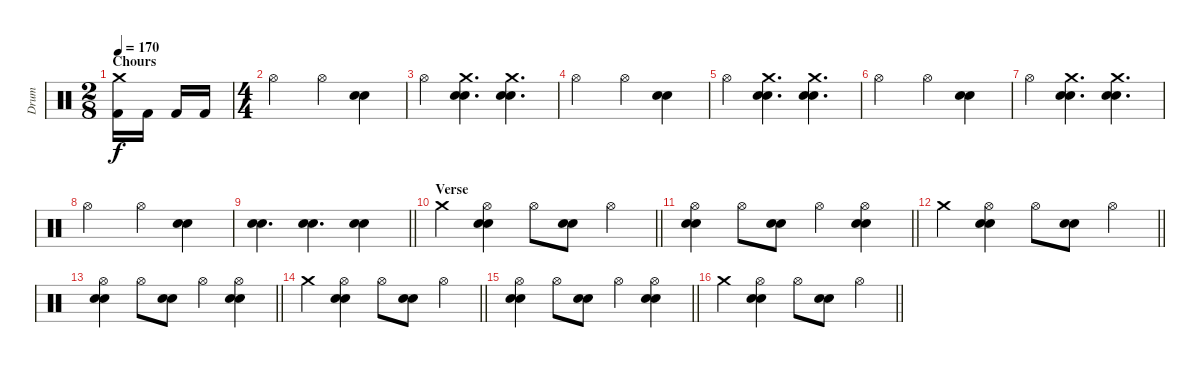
\track ("Drum" "Drum") {instrument percussion}
\staff
\articulation defaults
\ts (2 8)
\section ("" "Chours")
\tempo 170
\clef neutral
\ks c
("Crash medium (hit)" "Kick (hit) 2").16{dy f} "Kick (hit) 2".16 "Kick (hit) 2".16 "Kick (hit) 2".16 |
\ts (4 4)
"Hi-Hat (open)".2 "Hi-Hat (open)".4 ("Electric Snare (hit)" "Snare (hit) 2").4 |
"Hi-Hat (open)".4 ("Crash medium (hit)" "Electric Snare (hit)" "Snare (hit) 2").4{d} ("Crash medium (hit)" "Electric Snare (hit)" "Snare (hit) 2").4{d} |
"Hi-Hat (open)".2 "Hi-Hat (open)".4 ("Electric Snare (hit)" "Snare (hit) 2").4 |
"Hi-Hat (open)".4 ("Crash medium (hit)" "Electric Snare (hit)" "Snare (hit) 2").4{d} ("Crash medium (hit)" "Electric Snare (hit)" "Snare (hit) 2").4{d} |
"Hi-Hat (open)".2 "Hi-Hat (open)".4 ("Electric Snare (hit)" "Snare (hit) 2").4 |
"Hi-Hat (open)".4 ("Crash medium (hit)" "Electric Snare (hit)" "Snare (hit) 2").4{d} ("Crash medium (hit)" "Electric Snare (hit)" "Snare (hit) 2").4{d} |
"Hi-Hat (open)".2 "Hi-Hat (open)".4 ("Electric Snare (hit)" "Snare (hit) 2").4 |
\barLineRight lightlight
("Electric Snare (hit)" "Snare (hit) 2").4{d} ("Electric Snare (hit)" "Snare (hit) 2").4{d} ("Electric Snare (hit)" "Snare (hit) 2").4 |
\section ("" "Verse")
\barLineRight lightlight "Crash medium (hit)".4
("Hi-Hat (open)" "Electric Snare (hit)" "Snare (hit) 2").4 "Hi-Hat (open)".8 ("Electric Snare (hit)" "Snare (hit) 2").8 "Hi-Hat (open)".4 |
\barLineRight lightlight
("Hi-Hat (open)" "Electric Snare (hit)" "Snare (hit) 2").4 "Hi-Hat (open)".8 ("Electric Snare (hit)" "Snare (hit) 2").8 "Hi-Hat (open)".4 ("Hi-Hat (open)" "Electric Snare (hit)" "Snare (hit) 2").4 |
\barLineRight lightlight "Crash medium (hit)".4
("Hi-Hat (open)" "Electric Snare (hit)" "Snare (hit) 2").4 "Hi-Hat (open)".8 ("Electric Snare (hit)" "Snare (hit) 2").8 "Hi-Hat (open)".4 |
\barLineRight lightlight
("Hi-Hat (open)" "Electric Snare (hit)" "Snare (hit) 2").4 "Hi-Hat (open)".8 ("Electric Snare (hit)" "Snare (hit) 2").8 "Hi-Hat (open)".4 ("Hi-Hat (open)" "Electric Snare (hit)" "Snare (hit) 2").4 |
\barLineRight lightlight "Crash medium (hit)".4
("Hi-Hat (open)" "Electric Snare (hit)" "Snare (hit) 2").4 "Hi-Hat (open)".8 ("Electric Snare (hit)" "Snare (hit) 2").8 "Hi-Hat (open)".4 |
\barLineRight lightlight
("Hi-Hat (open)" "Electric Snare (hit)" "Snare (hit) 2").4 "Hi-Hat (open)".8 ("Electric Snare (hit)" "Snare (hit) 2").8 "Hi-Hat (open)".4 ("Hi-Hat (open)" "Electric Snare (hit)" "Snare (hit) 2").4 |
\barLineRight lightlight "Crash medium (hit)".4
("Hi-Hat (open)" "Electric Snare (hit)" "Snare (hit) 2").4 "Hi-Hat (open)".8 ("Electric Snare (hit)" "Snare (hit) 2").8 "Hi-Hat (open)".4
